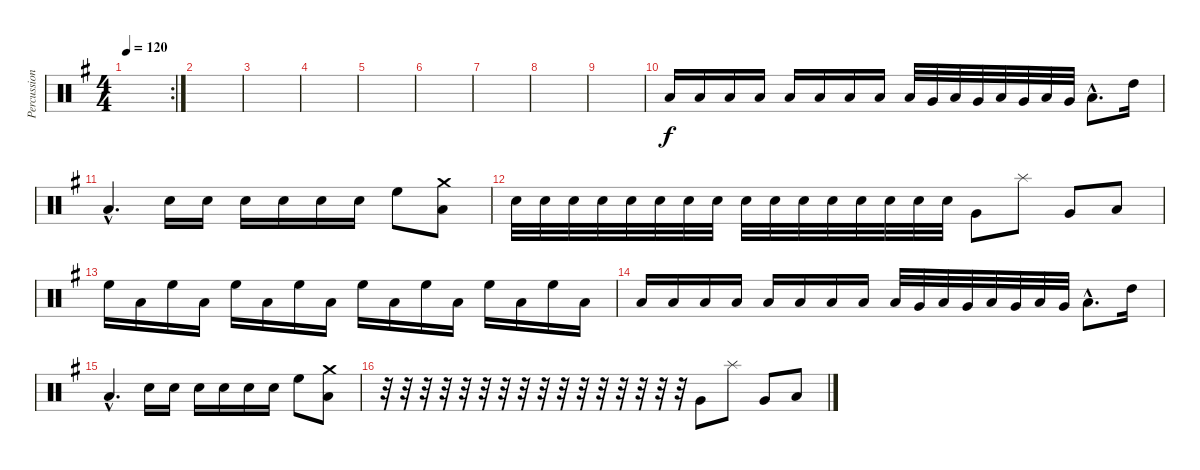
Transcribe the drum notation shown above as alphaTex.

\track ("Percussion 2" "Percussion") {instrument percussion}
\staff {score}
\articulation defaults
\rc 2
\ts (4 4)
\tempo 120
\clef neutral
\ks eminor
|
|
|
|
|
|
|
|
|
"Low Tom (hit)".16 "Low Tom (hit)".16 "Low Floor Tom (hit)".16 "Low Floor Tom (hit)".16 "Low Tom (hit)".16 "Low Tom (hit)".16 "Low Floor Tom (hit)".16 "Low Floor Tom (hit)".16 "Low Floor Tom (hit)".32 "Very Low Tom (hit)".32 "Low Floor Tom (hit)".32 "Very Low Tom (hit)".32 "Low Floor Tom (hit)".32 "Very Low Tom (hit)".32 "Low Floor Tom (hit)".32 "Very Low Tom (hit)".32 "Low Floor Tom (hit)"{hac}.8{d} "High Tom (hit)".16 |
"Low Floor Tom (hit)"{hac}.4{d} "Electric Snare (hit)".16 "Electric Snare (hit)".16 "Electric Snare (hit)".16 "Electric Snare (hit)".16 "Electric Snare (hit)".16 "Electric Snare (hit)".16 "High Floor Tom (hit)".8 ("Crash medium (hit)" "Low Floor Tom (hit)").8 |
"Electric Snare (hit)".32 "Electric Snare (hit)".32 "Electric Snare (hit)".32 "Electric Snare (hit)".32 "Electric Snare (hit)".32 "Electric Snare (hit)".32 "Electric Snare (hit)".32 "Electric Snare (hit)".32 "Electric Snare (hit)".32 "Electric Snare (hit)".32 "Electric Snare (hit)".32 "Electric Snare (hit)".32 "Electric Snare (hit)".32 "Electric Snare (hit)".32 "Electric Snare (hit)".32 "Electric Snare (hit)".32 "Very Low Tom (hit)".8 "Splash (hit)".8 "Very Low Tom (hit)".8 "Low Floor Tom (hit)".8 |
"High Floor Tom (hit)".16 "Low Floor Tom (hit)".16 "High Floor Tom (hit)".16 "Low Floor Tom (hit)".16 "High Floor Tom (hit)".16 "Low Floor Tom (hit)".16 "High Floor Tom (hit)".16 "Low Floor Tom (hit)".16 "High Floor Tom (hit)".16 "Low Floor Tom (hit)".16 "High Floor Tom (hit)".16 "Low Floor Tom (hit)".16 "High Floor Tom (hit)".16 "Low Floor Tom (hit)".16 "High Floor Tom (hit)".16 "Low Floor Tom (hit)".16 |
"Low Tom (hit)".16 "Low Tom (hit)".16 "Low Floor Tom (hit)".16 "Low Floor Tom (hit)".16 "Low Tom (hit)".16 "Low Tom (hit)".16 "Low Floor Tom (hit)".16 "Low Floor Tom (hit)".16 "Low Floor Tom (hit)".32 "Very Low Tom (hit)".32 "Low Floor Tom (hit)".32 "Very Low Tom (hit)".32 "Low Floor Tom (hit)".32 "Very Low Tom (hit)".32 "Low Floor Tom (hit)".32 "Very Low Tom (hit)".32 "Low Floor Tom (hit)"{hac}.8{d} "High Tom (hit)".16 |
"Low Floor Tom (hit)"{hac}.4{d} "Electric Snare (hit)".16 "Electric Snare (hit)".16 "Electric Snare (hit)".16 "Electric Snare (hit)".16 "Electric Snare (hit)".16 "Electric Snare (hit)".16 "High Floor Tom (hit)".8 ("Crash medium (hit)" "Low Floor Tom (hit)").8 |
r.32 r.32 r.32 r.32 r.32 r.32 r.32 r.32 r.32 r.32 r.32 r.32 r.32 r.32 r.32 r.32 "Very Low Tom (hit)".8 "Splash (hit)".8 "Very Low Tom (hit)".8 "Low Floor Tom (hit)".8
